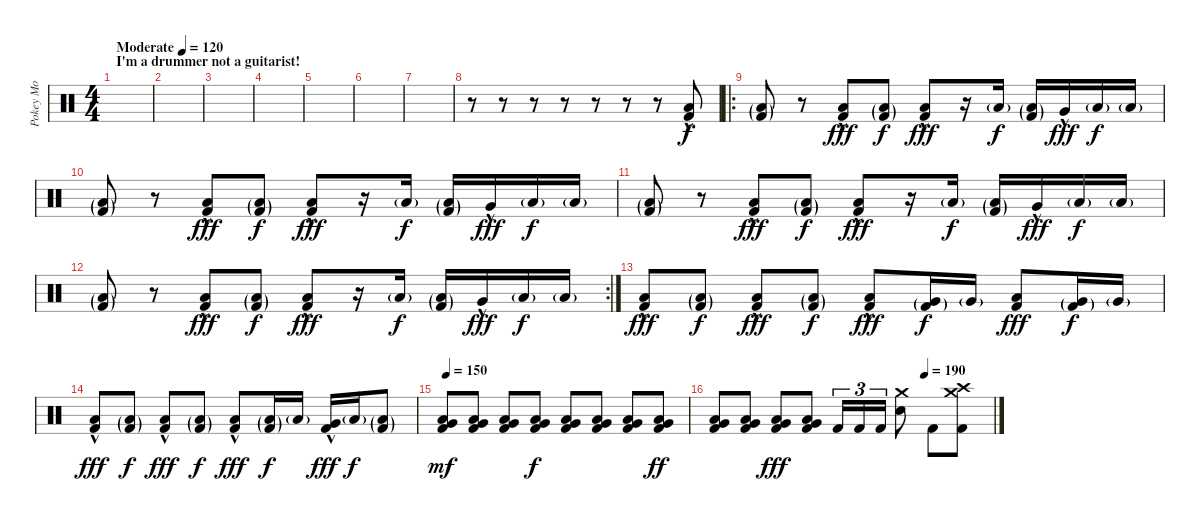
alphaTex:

\track ("Pokey Mo" "Pokey Mo") {instrument percussion}
\staff {score}
\articulation defaults
\ts (4 4)
\section ("" "I'm a drummer not a guitarist!")
\tempo (120 "Moderate")
\clef neutral
\ks c
|
|
|
|
|
|
|
r.8 r.8 r.8 r.8 r.8 r.8 r.8 ("Low Floor Tom (hit)"{hac} "Kick (hit) 2").8 |
\ro
("Low Floor Tom (hit)"{g} "Kick (hit) 2"{g}).8{dy f} r.8 ("Low Floor Tom (hit)"{hac} "Kick (hit) 2").8{dy fff} ("Low Floor Tom (hit)"{g} "Kick (hit) 2"{g}).8{dy f} ("Low Floor Tom (hit)"{hac} "Kick (hit) 2").8{dy fff} r.16 "Low Floor Tom (hit)"{g}.16{dy f} ("Low Floor Tom (hit)"{g} "Kick (hit) 2"{g}).16 "Very Low Tom (hit)"{hac}.16{dy fff} "Low Floor Tom (hit)"{g}.16{dy f} "Low Floor Tom (hit)"{g}.16 |
("Low Floor Tom (hit)"{g} "Kick (hit) 2"{g}).8 r.8 ("Low Floor Tom (hit)"{hac} "Kick (hit) 2").8{dy fff} ("Low Floor Tom (hit)"{g} "Kick (hit) 2"{g}).8{dy f} ("Low Floor Tom (hit)"{hac} "Kick (hit) 2").8{dy fff} r.16 "Low Floor Tom (hit)"{g}.16{dy f} ("Low Floor Tom (hit)"{g} "Kick (hit) 2"{g}).16 "Very Low Tom (hit)"{hac}.16{dy fff} "Low Floor Tom (hit)"{g}.16{dy f} "Low Floor Tom (hit)"{g}.16 |
("Low Floor Tom (hit)"{g} "Kick (hit) 2"{g}).8 r.8 ("Low Floor Tom (hit)"{hac} "Kick (hit) 2").8{dy fff} ("Low Floor Tom (hit)"{g} "Kick (hit) 2"{g}).8{dy f} ("Low Floor Tom (hit)"{hac} "Kick (hit) 2").8{dy fff} r.16 "Low Floor Tom (hit)"{g}.16{dy f} ("Low Floor Tom (hit)"{g} "Kick (hit) 2"{g}).16 "Very Low Tom (hit)"{hac}.16{dy fff} "Low Floor Tom (hit)"{g}.16{dy f} "Low Floor Tom (hit)"{g}.16 |
\rc 2
("Low Floor Tom (hit)"{g} "Kick (hit) 2"{g}).8 r.8 ("Low Floor Tom (hit)"{hac} "Kick (hit) 2").8{dy fff} ("Low Floor Tom (hit)"{g} "Kick (hit) 2"{g}).8{dy f} ("Low Floor Tom (hit)"{hac} "Kick (hit) 2").8{dy fff} r.16 "Low Floor Tom (hit)"{g}.16{dy f} ("Low Floor Tom (hit)"{g} "Kick (hit) 2"{g}).16 "Very Low Tom (hit)"{hac}.16{dy fff} "Low Floor Tom (hit)"{g}.16{dy f} "Low Floor Tom (hit)"{g}.16 |
("Low Floor Tom (hit)"{hac} "Kick (hit) 2").8{dy fff} ("Low Floor Tom (hit)"{g} "Kick (hit) 2"{g}).8{dy f} ("Low Floor Tom (hit)"{hac} "Kick (hit) 2").8{dy fff} ("Low Floor Tom (hit)"{g} "Kick (hit) 2"{g}).8{dy f} ("Low Floor Tom (hit)"{hac} "Kick (hit) 2").8{dy fff} ("Very Low Tom (hit)"{g} "Kick (hit) 2"{g}).16{dy f} "Very Low Tom (hit)"{g}.16 ("Low Floor Tom (hit)" "Kick (hit) 2").8{dy fff} ("Very Low Tom (hit)"{g} "Kick (hit) 2"{g}).16{dy f} "Very Low Tom (hit)"{g}.16 |
("Low Floor Tom (hit)"{hac} "Kick (hit) 2").8{dy fff} ("Low Floor Tom (hit)"{g} "Kick (hit) 2"{g}).8{dy f} ("Low Floor Tom (hit)"{hac} "Kick (hit) 2").8{dy fff} ("Low Floor Tom (hit)"{g} "Kick (hit) 2"{g}).8{dy f} ("Low Floor Tom (hit)"{hac} "Kick (hit) 2").8{dy fff} ("Low Floor Tom (hit)"{g} "Kick (hit) 2"{g}).16{dy f} "Low Floor Tom (hit)"{g}.16 ("Very Low Tom (hit)"{hac} "Kick (hit) 2").16{dy fff} "Low Floor Tom (hit)"{g}.16{dy f} ("Low Floor Tom (hit)"{g} "Kick (hit) 2"{g}).8 |
\tempo 150
("Very Low Tom (hit)" "Low Floor Tom (hit)" "Kick (hit) 2").8{dy mf} ("Very Low Tom (hit)" "Low Floor Tom (hit)" "Kick (hit) 2").8 ("Very Low Tom (hit)" "Low Floor Tom (hit)" "Kick (hit) 2").8 ("Very Low Tom (hit)" "Low Floor Tom (hit)" "Kick (hit) 2").8{dy f} ("Very Low Tom (hit)" "Low Floor Tom (hit)" "Kick (hit) 2").8 ("Very Low Tom (hit)" "Low Floor Tom (hit)" "Kick (hit) 2").8 ("Very Low Tom (hit)" "Low Floor Tom (hit)" "Kick (hit) 2").8 ("Very Low Tom (hit)" "Low Floor Tom (hit)" "Kick (hit) 2").8{dy ff} |
\tempo (190 0.75)
("Very Low Tom (hit)" "Low Floor Tom (hit)" "Kick (hit) 2").8 ("Very Low Tom (hit)" "Low Floor Tom (hit)" "Kick (hit) 2").8 ("Very Low Tom (hit)" "Low Floor Tom (hit)" "Kick (hit) 2").8{dy fff} ("Very Low Tom (hit)" "Low Floor Tom (hit)" "Kick (hit) 2").8 "Kick (hit) 2".16{tu (3 2)} "Kick (hit) 2".16{tu (3 2)} "Kick (hit) 2".16{tu (3 2)} ("Crash medium (hit)" "Electric Snare (hit)").8 "Kick (hit) 2".8 ("Crash medium (hit)" "Crash high (hit)" "Kick (hit) 2").8
